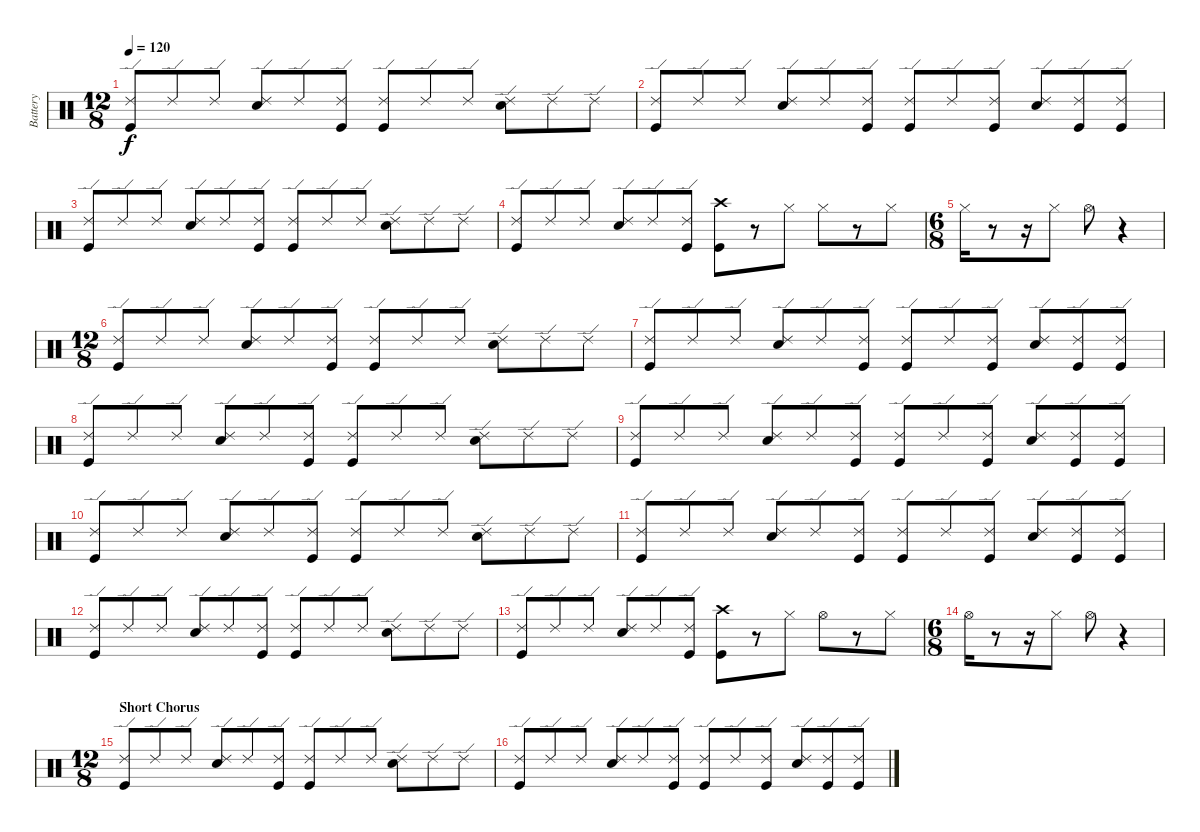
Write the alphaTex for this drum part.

\track ("Battery" "Battery") {instrument percussion}
\staff {score}
\articulation defaults
\ts (12 8)
\tempo 120
\clef neutral
\ks c
("Ride (edge) 2" "Kick (hit)").8{dy f} "Ride (edge) 2".8 "Ride (edge) 2".8 ("Ride (edge) 2" "Electric Snare (hit)").8 "Ride (edge) 2".8 ("Ride (edge) 2" "Kick (hit)").8 ("Ride (edge) 2" "Kick (hit)").8 "Ride (edge) 2".8 "Ride (edge) 2".8 ("Ride (edge) 2" "Electric Snare (hit)").8 "Ride (edge) 2".8 "Ride (edge) 2".8 |
("Ride (edge) 2" "Kick (hit)").8 "Ride (edge) 2".8 "Ride (edge) 2".8 ("Ride (edge) 2" "Electric Snare (hit)").8 "Ride (edge) 2".8 ("Ride (edge) 2" "Kick (hit)").8 ("Ride (edge) 2" "Kick (hit)").8 "Ride (edge) 2".8 ("Ride (edge) 2" "Kick (hit)").8 ("Ride (edge) 2" "Electric Snare (hit)").8 ("Ride (edge) 2" "Kick (hit)").8 ("Ride (edge) 2" "Kick (hit)").8 |
("Ride (edge) 2" "Kick (hit)").8 "Ride (edge) 2".8 "Ride (edge) 2".8 ("Ride (edge) 2" "Electric Snare (hit)").8 "Ride (edge) 2".8 ("Ride (edge) 2" "Kick (hit)").8 ("Ride (edge) 2" "Kick (hit)").8 "Ride (edge) 2".8 "Ride (edge) 2".8 ("Ride (edge) 2" "Electric Snare (hit)").8 "Ride (edge) 2".8 "Ride (edge) 2".8 |
("Ride (edge) 2" "Kick (hit)").8 "Ride (edge) 2".8 "Ride (edge) 2".8 ("Ride (edge) 2" "Electric Snare (hit)").8 "Ride (edge) 2".8 ("Ride (edge) 2" "Kick (hit)").8 ("Crash high (hit)" "Kick (hit)").8 r.8 "Hi-Hat (closed)".8 "Hi-Hat (closed)".8 r.8 "Hi-Hat (closed)".8 |
\ts (6 8)
"Hi-Hat (closed)".16 r.8 r.16 "Hi-Hat (closed)".8 "Hi-Hat (open)".8 r.4 |
\ts (12 8)
("Ride (edge) 2" "Kick (hit)").8 "Ride (edge) 2".8 "Ride (edge) 2".8 ("Ride (edge) 2" "Electric Snare (hit)").8 "Ride (edge) 2".8 ("Ride (edge) 2" "Kick (hit)").8 ("Ride (edge) 2" "Kick (hit)").8 "Ride (edge) 2".8 "Ride (edge) 2".8 ("Ride (edge) 2" "Electric Snare (hit)").8 "Ride (edge) 2".8 "Ride (edge) 2".8 |
("Ride (edge) 2" "Kick (hit)").8 "Ride (edge) 2".8 "Ride (edge) 2".8 ("Ride (edge) 2" "Electric Snare (hit)").8 "Ride (edge) 2".8 ("Ride (edge) 2" "Kick (hit)").8 ("Ride (edge) 2" "Kick (hit)").8 "Ride (edge) 2".8 ("Ride (edge) 2" "Kick (hit)").8 ("Ride (edge) 2" "Electric Snare (hit)").8 ("Ride (edge) 2" "Kick (hit)").8 ("Ride (edge) 2" "Kick (hit)").8 |
("Ride (edge) 2" "Kick (hit)").8 "Ride (edge) 2".8 "Ride (edge) 2".8 ("Ride (edge) 2" "Electric Snare (hit)").8 "Ride (edge) 2".8 ("Ride (edge) 2" "Kick (hit)").8 ("Ride (edge) 2" "Kick (hit)").8 "Ride (edge) 2".8 "Ride (edge) 2".8 ("Ride (edge) 2" "Electric Snare (hit)").8 "Ride (edge) 2".8 "Ride (edge) 2".8 |
("Ride (edge) 2" "Kick (hit)").8 "Ride (edge) 2".8 "Ride (edge) 2".8 ("Ride (edge) 2" "Electric Snare (hit)").8 "Ride (edge) 2".8 ("Ride (edge) 2" "Kick (hit)").8 ("Ride (edge) 2" "Kick (hit)").8 "Ride (edge) 2".8 ("Ride (edge) 2" "Kick (hit)").8 ("Ride (edge) 2" "Electric Snare (hit)").8 ("Ride (edge) 2" "Kick (hit)").8 ("Ride (edge) 2" "Kick (hit)").8 |
("Ride (edge) 2" "Kick (hit)").8 "Ride (edge) 2".8 "Ride (edge) 2".8 ("Ride (edge) 2" "Electric Snare (hit)").8 "Ride (edge) 2".8 ("Ride (edge) 2" "Kick (hit)").8 ("Ride (edge) 2" "Kick (hit)").8 "Ride (edge) 2".8 "Ride (edge) 2".8 ("Ride (edge) 2" "Electric Snare (hit)").8 "Ride (edge) 2".8 "Ride (edge) 2".8 |
("Ride (edge) 2" "Kick (hit)").8 "Ride (edge) 2".8 "Ride (edge) 2".8 ("Ride (edge) 2" "Electric Snare (hit)").8 "Ride (edge) 2".8 ("Ride (edge) 2" "Kick (hit)").8 ("Ride (edge) 2" "Kick (hit)").8 "Ride (edge) 2".8 ("Ride (edge) 2" "Kick (hit)").8 ("Ride (edge) 2" "Electric Snare (hit)").8 ("Ride (edge) 2" "Kick (hit)").8 ("Ride (edge) 2" "Kick (hit)").8 |
("Ride (edge) 2" "Kick (hit)").8 "Ride (edge) 2".8 "Ride (edge) 2".8 ("Ride (edge) 2" "Electric Snare (hit)").8 "Ride (edge) 2".8 ("Ride (edge) 2" "Kick (hit)").8 ("Ride (edge) 2" "Kick (hit)").8 "Ride (edge) 2".8 "Ride (edge) 2".8 ("Ride (edge) 2" "Electric Snare (hit)").8 "Ride (edge) 2".8 "Ride (edge) 2".8 |
("Ride (edge) 2" "Kick (hit)").8 "Ride (edge) 2".8 "Ride (edge) 2".8 ("Ride (edge) 2" "Electric Snare (hit)").8 "Ride (edge) 2".8 ("Ride (edge) 2" "Kick (hit)").8 ("Crash high (hit)" "Kick (hit)").8 r.8 "Hi-Hat (closed)".8 "Hi-Hat (open)".8 r.8 "Hi-Hat (closed)".8 |
\ts (6 8)
"Hi-Hat (open)".16 r.8 r.16 "Hi-Hat (closed)".8 "Hi-Hat (open)".8 r.4 |
\ts (12 8)
\section ("" "Short Chorus")
("Ride (edge) 2" "Kick (hit)").8 "Ride (edge) 2".8 "Ride (edge) 2".8 ("Ride (edge) 2" "Electric Snare (hit)").8 "Ride (edge) 2".8 ("Ride (edge) 2" "Kick (hit)").8 ("Ride (edge) 2" "Kick (hit)").8 "Ride (edge) 2".8 "Ride (edge) 2".8 ("Ride (edge) 2" "Electric Snare (hit)").8 "Ride (edge) 2".8 "Ride (edge) 2".8 |
("Ride (edge) 2" "Kick (hit)").8 "Ride (edge) 2".8 "Ride (edge) 2".8 ("Ride (edge) 2" "Electric Snare (hit)").8 "Ride (edge) 2".8 ("Ride (edge) 2" "Kick (hit)").8 ("Ride (edge) 2" "Kick (hit)").8 "Ride (edge) 2".8 ("Ride (edge) 2" "Kick (hit)").8 ("Ride (edge) 2" "Electric Snare (hit)").8 ("Ride (edge) 2" "Kick (hit)").8 ("Ride (edge) 2" "Kick (hit)").8
